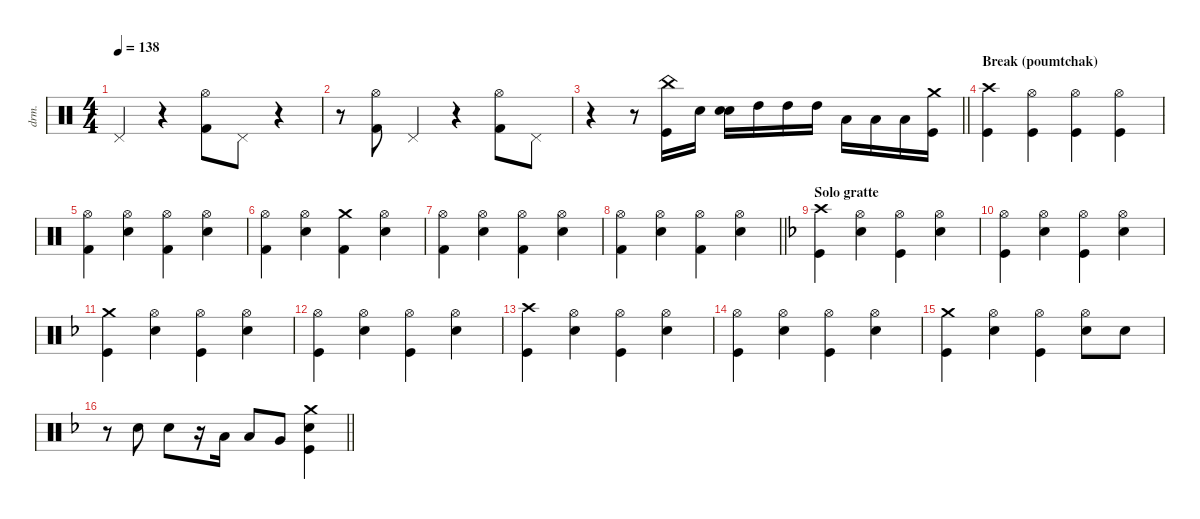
\defaultSystemsLayout 4
\hideDynamics
\bracketExtendMode nobrackets
\track ("Percussions" "drm.") {instrument percussion}
\staff {score}
\articulation defaults
\ts (4 4)
\tempo 138
\clef neutral
\ks aminor "Pedal Hi-Hat (hit)".4{dy f}
r.4 ("Kick (hit) 2" "Hi-Hat (open)").8 "Pedal Hi-Hat (hit)".8 r.4 |
r.8 ("Kick (hit) 2" "Hi-Hat (open)").8 "Pedal Hi-Hat (hit)".4 r.4 ("Kick (hit) 2" "Hi-Hat (open)").8 "Pedal Hi-Hat (hit)".8 |
\barLineRight lightlight
r.4 r.8 ("China (hit)" "Kick (hit)").16 "Snare (hit) 2".16 ("Snare (hit) 2" "Snare (hit) 2").16 "High Tom (hit)".16 "High Tom (hit)".16 "High Tom (hit)".16 "Low Tom (hit)".16 "Low Tom (hit)".16 "Low Tom (hit)".16 ("Kick (hit)" "Crash medium (hit)").16 |
\section ("" "Break (poumtchak)")
("Crash high (hit)" "Kick (hit)").4 ("Hi-Hat (open)" "Kick (hit)").4 ("Hi-Hat (open)" "Kick (hit)").4 ("Hi-Hat (open)" "Kick (hit)").4 |
("Hi-Hat (open)" "Kick (hit) 2").4 ("Hi-Hat (open)" "Snare (hit) 2").4 ("Hi-Hat (open)" "Kick (hit) 2").4 ("Hi-Hat (open)" "Snare (hit) 2").4 |
("Hi-Hat (open)" "Kick (hit) 2").4 ("Hi-Hat (open)" "Snare (hit) 2").4 ("Crash medium (hit)" "Kick (hit) 2").4 ("Hi-Hat (open)" "Snare (hit) 2").4 |
("Hi-Hat (open)" "Kick (hit) 2").4 ("Hi-Hat (open)" "Snare (hit) 2").4 ("Hi-Hat (open)" "Kick (hit) 2").4 ("Hi-Hat (open)" "Snare (hit) 2").4 |
\barLineRight lightlight
("Hi-Hat (open)" "Kick (hit) 2").4 ("Hi-Hat (open)" "Snare (hit) 2").4 ("Hi-Hat (open)" "Kick (hit) 2").4 ("Hi-Hat (open)" "Snare (hit) 2").4 |
\section ("" "Solo gratte")
\ks dminor
("Crash high (hit)"{acc forcenatural} "Kick (hit)"{acc forcenatural}).4 ("Hi-Hat (open)"{acc forcenatural} "Snare (hit) 2"{acc forcenatural}).4 ("Hi-Hat (open)"{acc forcenatural} "Kick (hit)"{acc forcenatural}).4 ("Hi-Hat (open)"{acc forcenatural} "Snare (hit) 2"{acc forcenatural}).4 |
("Hi-Hat (open)"{acc forcenatural} "Kick (hit)"{acc forcenatural}).4 ("Hi-Hat (open)"{acc forcenatural} "Snare (hit) 2"{acc forcenatural}).4 ("Hi-Hat (open)"{acc forcenatural} "Kick (hit)"{acc forcenatural}).4 ("Hi-Hat (open)"{acc forcenatural} "Snare (hit) 2"{acc forcenatural}).4 |
("Crash medium (hit)"{acc forcenatural} "Kick (hit)"{acc forcenatural}).4 ("Hi-Hat (open)"{acc forcenatural} "Snare (hit) 2"{acc forcenatural}).4 ("Hi-Hat (open)"{acc forcenatural} "Kick (hit)"{acc forcenatural}).4 ("Hi-Hat (open)"{acc forcenatural} "Snare (hit) 2"{acc forcenatural}).4 |
("Hi-Hat (open)"{acc forcenatural} "Kick (hit)"{acc forcenatural}).4 ("Hi-Hat (open)"{acc forcenatural} "Snare (hit) 2"{acc forcenatural}).4 ("Hi-Hat (open)"{acc forcenatural} "Kick (hit)"{acc forcenatural}).4 ("Hi-Hat (open)"{acc forcenatural} "Snare (hit) 2"{acc forcenatural}).4 |
("Crash high (hit)"{acc forcenatural} "Kick (hit)"{acc forcenatural}).4 ("Hi-Hat (open)"{acc forcenatural} "Snare (hit) 2"{acc forcenatural}).4 ("Hi-Hat (open)"{acc forcenatural} "Kick (hit)"{acc forcenatural}).4 ("Hi-Hat (open)"{acc forcenatural} "Snare (hit) 2"{acc forcenatural}).4 |
("Hi-Hat (open)"{acc forcenatural} "Kick (hit)"{acc forcenatural}).4 ("Hi-Hat (open)"{acc forcenatural} "Snare (hit) 2"{acc forcenatural}).4 ("Hi-Hat (open)"{acc forcenatural} "Kick (hit)"{acc forcenatural}).4 ("Hi-Hat (open)"{acc forcenatural} "Snare (hit) 2"{acc forcenatural}).4 |
("Crash medium (hit)"{acc forcenatural} "Kick (hit)"{acc forcenatural}).4 ("Hi-Hat (open)"{acc forcenatural} "Snare (hit) 2"{acc forcenatural}).4 ("Hi-Hat (open)"{acc forcenatural} "Kick (hit)"{acc forcenatural}).4 ("Hi-Hat (open)"{acc forcenatural} "Snare (hit) 2"{acc forcenatural}).8 "Snare (hit) 2"{acc forcenatural}.8 |
\barLineRight lightlight
r.8 "Snare (hit) 2"{acc forcenatural}.8 "Snare (hit) 2"{acc forcenatural}.8 r.16 "Low Tom (hit)"{acc forcenatural}.16 "Low Tom (hit)"{acc forcenatural}.8 "Very Low Tom (hit)"{acc forcenatural}.8 ("Crash medium (hit)"{acc forcenatural} "Snare (hit) 2"{acc forcenatural} "Kick (hit)"{acc forcenatural}).4
